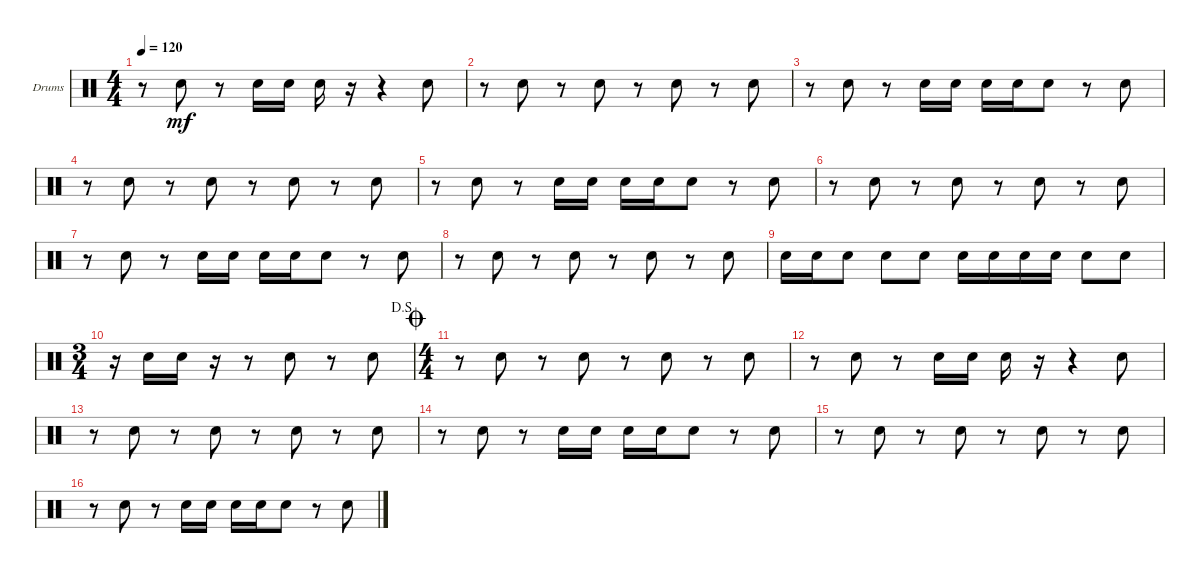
\bracketExtendMode groupsimilarinstruments
\firstSystemTrackNameOrientation horizontal
\otherSystemsTrackNameOrientation horizontal
\track ("Drumkit" "Drums") {instrument percussion}
\staff {score}
\articulation defaults
\ts (4 4)
\tempo 120
\clef neutral
\scale
0.333333
\ks c
r.8{dy mf} "Snare (hit) 2".8 r.8 "Snare (hit) 2".16 "Snare (hit) 2".16 "Snare (hit) 2".16 r.16 r.4 "Snare (hit) 2".8 |
\scale
0.333333 r.8 "Snare (hit) 2".8 r.8 "Snare (hit) 2".8 r.8 "Snare (hit) 2".8 r.8 "Snare (hit) 2".8 |
\scale
0.333333 r.8 "Snare (hit) 2".8 r.8 "Snare (hit) 2".16 "Snare (hit) 2".16 "Snare (hit) 2".16 "Snare (hit) 2".16 "Snare (hit) 2".8 r.8 "Snare (hit) 2".8 |
\scale
0.333333 r.8 "Snare (hit) 2".8 r.8 "Snare (hit) 2".8 r.8 "Snare (hit) 2".8 r.8 "Snare (hit) 2".8 |
\scale
0.333333 r.8 "Snare (hit) 2".8 r.8 "Snare (hit) 2".16 "Snare (hit) 2".16 "Snare (hit) 2".16 "Snare (hit) 2".16 "Snare (hit) 2".8 r.8 "Snare (hit) 2".8 |
\scale
0.333333 r.8 "Snare (hit) 2".8 r.8 "Snare (hit) 2".8 r.8 "Snare (hit) 2".8 r.8 "Snare (hit) 2".8 |
\scale
0.333333 r.8 "Snare (hit) 2".8 r.8 "Snare (hit) 2".16 "Snare (hit) 2".16 "Snare (hit) 2".16 "Snare (hit) 2".16 "Snare (hit) 2".8 r.8 "Snare (hit) 2".8 |
\scale
0.333333 r.8 "Snare (hit) 2".8 r.8 "Snare (hit) 2".8 r.8 "Snare (hit) 2".8 r.8 "Snare (hit) 2".8 |
"Snare (hit) 2".16 "Snare (hit) 2".16 "Snare (hit) 2".8 "Snare (hit) 2".8 "Snare (hit) 2".8 "Snare (hit) 2".16 "Snare (hit) 2".16 "Snare (hit) 2".16 "Snare (hit) 2".16 "Snare (hit) 2".8 "Snare (hit) 2".8 |
\ts (3 4)
\jump dalsegno
r.16 "Snare (hit) 2".16 "Snare (hit) 2".16 r.16 r.8 "Snare (hit) 2".8 r.8 "Snare (hit) 2".8 |
\ts (4 4)
\jump coda
r.8 "Snare (hit) 2".8 r.8 "Snare (hit) 2".8 r.8 "Snare (hit) 2".8 r.8 "Snare (hit) 2".8 |
r.8 "Snare (hit) 2".8 r.8 "Snare (hit) 2".16 "Snare (hit) 2".16 "Snare (hit) 2".16 r.16 r.4 "Snare (hit) 2".8 |
r.8 "Snare (hit) 2".8 r.8 "Snare (hit) 2".8 r.8 "Snare (hit) 2".8 r.8 "Snare (hit) 2".8 |
r.8 "Snare (hit) 2".8 r.8 "Snare (hit) 2".16 "Snare (hit) 2".16 "Snare (hit) 2".16 "Snare (hit) 2".16 "Snare (hit) 2".8 r.8 "Snare (hit) 2".8 |
r.8 "Snare (hit) 2".8 r.8 "Snare (hit) 2".8 r.8 "Snare (hit) 2".8 r.8 "Snare (hit) 2".8 |
r.8 "Snare (hit) 2".8 r.8 "Snare (hit) 2".16 "Snare (hit) 2".16 "Snare (hit) 2".16 "Snare (hit) 2".16 "Snare (hit) 2".8 r.8 "Snare (hit) 2".8
